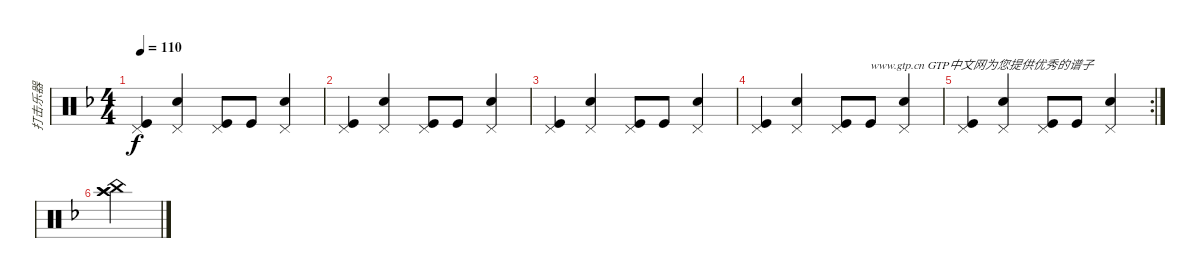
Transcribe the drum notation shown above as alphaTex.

\track ("打击乐器" "打击乐器") {instrument percussion}
\staff {score}
\articulation defaults
\ts (4 4)
\tempo 110
\clef neutral
\ks f
("Pedal Hi-Hat (hit)" "Kick (hit)").4{dy f} ("Pedal Hi-Hat (hit)" "Snare (hit) 2").4 ("Pedal Hi-Hat (hit)" "Kick (hit)").8 "Kick (hit)".8 ("Pedal Hi-Hat (hit)" "Snare (hit) 2").4 |
("Pedal Hi-Hat (hit)" "Kick (hit)").4 ("Pedal Hi-Hat (hit)" "Snare (hit) 2").4 ("Pedal Hi-Hat (hit)" "Kick (hit)").8 "Kick (hit)".8 ("Pedal Hi-Hat (hit)" "Snare (hit) 2").4 |
("Pedal Hi-Hat (hit)" "Kick (hit)").4 ("Pedal Hi-Hat (hit)" "Snare (hit) 2").4 ("Pedal Hi-Hat (hit)" "Kick (hit)").8 "Kick (hit)".8 ("Pedal Hi-Hat (hit)" "Snare (hit) 2").4 |
("Pedal Hi-Hat (hit)" "Kick (hit)").4 ("Pedal Hi-Hat (hit)" "Snare (hit) 2").4 ("Pedal Hi-Hat (hit)" "Kick (hit)").8 "Kick (hit)".8{txt "www.gtp.cn GTP中文网为您提供优秀的谱子"} ("Pedal Hi-Hat (hit)" "Snare (hit) 2").4 |
\rc 2
("Pedal Hi-Hat (hit)" "Kick (hit)").4 ("Pedal Hi-Hat (hit)" "Snare (hit) 2").4 ("Pedal Hi-Hat (hit)" "Kick (hit)").8 "Kick (hit)".8 ("Pedal Hi-Hat (hit)" "Snare (hit) 2").4 |
("China (hit)" "Crash high (hit)" "Crash high (hit)").2
